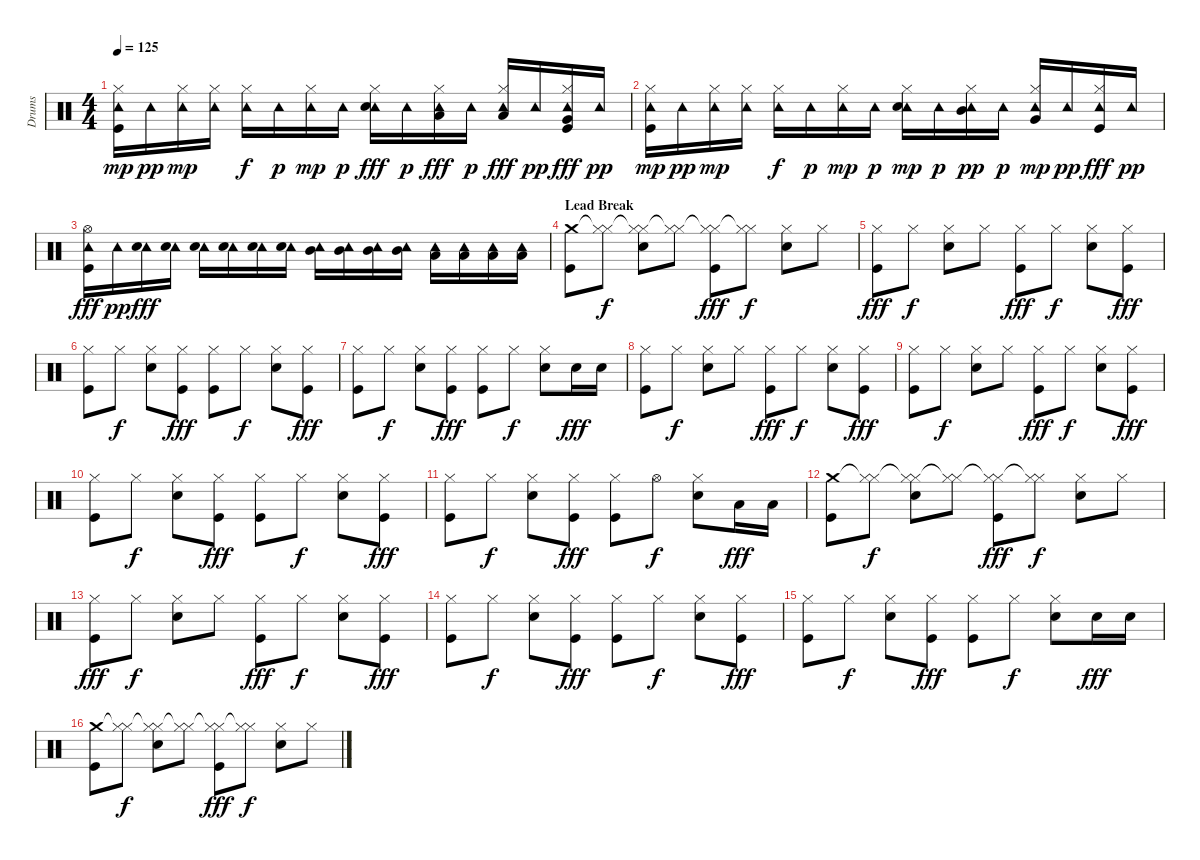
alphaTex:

\track ("Drums" "Drums") {instrument percussion}
\staff {score}
\articulation defaults
\ts (4 4)
\tempo 125
\clef neutral
\ks c
("Tambourine (hit)" "Hi-Hat (closed)" "Kick (hit)").16{dy mp} "Tambourine (hit)".16{dy pp} ("Tambourine (hit)" "Hi-Hat (closed)").16{dy mp} ("Tambourine (hit)" "Hi-Hat (closed)").16 ("Tambourine (hit)" "Hi-Hat (closed)").16{dy f} "Tambourine (hit)".16{dy p} ("Tambourine (hit)" "Hi-Hat (closed)").16{dy mp} "Tambourine (hit)".16{dy p} ("Tambourine (hit)" "Hi-Hat (closed)" "Snare (hit) 2").16{dy fff} "Tambourine (hit)".16{dy p} ("Tambourine (hit)" "Hi-Hat (closed)" "Low Tom (hit)").16{dy fff} "Tambourine (hit)".16{dy p} ("Tambourine (hit)" "Hi-Hat (closed)" "Low Tom (hit)").16{dy fff} "Tambourine (hit)".16{dy pp} ("Tambourine (hit)" "Hi-Hat (closed)" "Very Low Tom (hit)" "Kick (hit)").16{dy fff} "Tambourine (hit)".16{dy pp} |
("Tambourine (hit)" "Hi-Hat (closed)" "Kick (hit)").16{dy mp} "Tambourine (hit)".16{dy pp} ("Tambourine (hit)" "Hi-Hat (closed)").16{dy mp} ("Tambourine (hit)" "Hi-Hat (closed)").16 ("Tambourine (hit)" "Hi-Hat (closed)").16{dy f} "Tambourine (hit)".16{dy p} ("Tambourine (hit)" "Hi-Hat (closed)").16{dy mp} "Tambourine (hit)".16{dy p} ("Tambourine (hit)" "Hi-Hat (closed)" "Snare (hit) 2").16{dy mp} "Tambourine (hit)".16{dy p} ("Tambourine (hit)" "Hi-Hat (closed)" "Mid Tom (hit)").16{dy pp} "Tambourine (hit)".16{dy p} ("Tambourine (hit)" "Hi-Hat (closed)" "Very Low Tom (hit)").16{dy mp} "Tambourine (hit)".16{dy pp} ("Tambourine (hit)" "Hi-Hat (closed)" "Kick (hit)").16{dy fff} "Tambourine (hit)".16{dy pp} |
("Tambourine (hit)" "Hi-Hat (open)" "Kick (hit)").16{dy fff} "Tambourine (hit)".16{dy pp} ("Tambourine (hit)" "Electric Snare (hit)").16{dy fff} ("Tambourine (hit)" "Electric Snare (hit)").16 ("Tambourine (hit)" "Electric Snare (hit)").16 ("Tambourine (hit)" "Electric Snare (hit)").16 ("Tambourine (hit)" "Electric Snare (hit)").16 ("Tambourine (hit)" "Electric Snare (hit)").16 ("Tambourine (hit)" "Mid Tom (hit)").16 ("Tambourine (hit)" "Mid Tom (hit)").16 ("Tambourine (hit)" "Mid Tom (hit)").16 ("Tambourine (hit)" "Mid Tom (hit)").16 ("Tambourine (hit)" "Low Tom (hit)").16 ("Tambourine (hit)" "Low Tom (hit)").16 ("Tambourine (hit)" "Low Tom (hit)").16 ("Tambourine (hit)" "Low Tom (hit)").16 |
\section ("" "Lead Break")
("Crash medium (hit)" "Kick (hit)").8 ("Hi-Hat (closed)"{t} "Hi-Hat (closed)").8{dy f} ("Hi-Hat (closed)"{t} "Hi-Hat (closed)" "Snare (hit) 2").8 ("Hi-Hat (closed)"{t} "Hi-Hat (closed)").8 ("Hi-Hat (closed)"{t} "Hi-Hat (closed)" "Kick (hit)").8{dy fff} ("Hi-Hat (closed)"{t} "Hi-Hat (closed)").8{dy f} ("Hi-Hat (closed)" "Snare (hit) 2").8 "Hi-Hat (closed)".8 |
("Hi-Hat (closed)" "Kick (hit)").8{dy fff} "Hi-Hat (closed)".8{dy f} ("Hi-Hat (closed)" "Snare (hit) 2").8 "Hi-Hat (closed)".8 ("Hi-Hat (closed)" "Kick (hit)").8{dy fff} "Hi-Hat (closed)".8{dy f} ("Hi-Hat (closed)" "Snare (hit) 2").8 ("Hi-Hat (closed)" "Kick (hit)").8{dy fff} |
("Hi-Hat (closed)" "Kick (hit)").8 "Hi-Hat (closed)".8{dy f} ("Hi-Hat (closed)" "Snare (hit) 2").8 ("Hi-Hat (closed)" "Kick (hit)").8{dy fff} ("Hi-Hat (closed)" "Kick (hit)").8 "Hi-Hat (closed)".8{dy f} ("Hi-Hat (closed)" "Snare (hit) 2").8 ("Hi-Hat (closed)" "Kick (hit)").8{dy fff} |
("Hi-Hat (closed)" "Kick (hit)").8 "Hi-Hat (closed)".8{dy f} ("Hi-Hat (closed)" "Snare (hit) 2").8 ("Hi-Hat (closed)" "Kick (hit)").8{dy fff} ("Hi-Hat (closed)" "Kick (hit)").8 "Hi-Hat (closed)".8{dy f} ("Hi-Hat (closed)" "Snare (hit) 2").8 "Snare (hit) 2".16{dy fff} "Snare (hit) 2".16 |
("Hi-Hat (closed)" "Kick (hit)").8 "Hi-Hat (closed)".8{dy f} ("Hi-Hat (closed)" "Snare (hit) 2").8 "Hi-Hat (closed)".8 ("Hi-Hat (closed)" "Kick (hit)").8{dy fff} "Hi-Hat (closed)".8{dy f} ("Hi-Hat (closed)" "Snare (hit) 2").8 ("Hi-Hat (closed)" "Kick (hit)").8{dy fff} |
("Hi-Hat (closed)" "Kick (hit)").8 "Hi-Hat (closed)".8{dy f} ("Hi-Hat (closed)" "Snare (hit) 2").8 "Hi-Hat (closed)".8 ("Hi-Hat (closed)" "Kick (hit)").8{dy fff} "Hi-Hat (closed)".8{dy f} ("Hi-Hat (closed)" "Snare (hit) 2").8 ("Hi-Hat (closed)" "Kick (hit)").8{dy fff} |
("Hi-Hat (closed)" "Kick (hit)").8 "Hi-Hat (closed)".8{dy f} ("Hi-Hat (closed)" "Snare (hit) 2").8 ("Hi-Hat (closed)" "Kick (hit)").8{dy fff} ("Hi-Hat (closed)" "Kick (hit)").8 "Hi-Hat (closed)".8{dy f} ("Hi-Hat (closed)" "Snare (hit) 2").8 ("Hi-Hat (closed)" "Kick (hit)").8{dy fff} |
("Hi-Hat (closed)" "Kick (hit)").8 "Hi-Hat (closed)".8{dy f} ("Hi-Hat (closed)" "Snare (hit) 2").8 ("Hi-Hat (closed)" "Kick (hit)").8{dy fff} ("Hi-Hat (closed)" "Kick (hit)").8 "Hi-Hat (open)".8{dy f} ("Hi-Hat (closed)" "Snare (hit) 2").8 "Low Tom (hit)".16{dy fff} "Low Tom (hit)".16 |
("Crash medium (hit)" "Kick (hit)").8 ("Hi-Hat (closed)"{t} "Hi-Hat (closed)").8{dy f} ("Hi-Hat (closed)"{t} "Hi-Hat (closed)" "Snare (hit) 2").8 ("Hi-Hat (closed)"{t} "Hi-Hat (closed)").8 ("Hi-Hat (closed)"{t} "Hi-Hat (closed)" "Kick (hit)").8{dy fff} ("Hi-Hat (closed)"{t} "Hi-Hat (closed)").8{dy f} ("Hi-Hat (closed)" "Snare (hit) 2").8 "Hi-Hat (closed)".8 |
("Hi-Hat (closed)" "Kick (hit)").8{dy fff} "Hi-Hat (closed)".8{dy f} ("Hi-Hat (closed)" "Snare (hit) 2").8 "Hi-Hat (closed)".8 ("Hi-Hat (closed)" "Kick (hit)").8{dy fff} "Hi-Hat (closed)".8{dy f} ("Hi-Hat (closed)" "Snare (hit) 2").8 ("Hi-Hat (closed)" "Kick (hit)").8{dy fff} |
("Hi-Hat (closed)" "Kick (hit)").8 "Hi-Hat (closed)".8{dy f} ("Hi-Hat (closed)" "Snare (hit) 2").8 ("Hi-Hat (closed)" "Kick (hit)").8{dy fff} ("Hi-Hat (closed)" "Kick (hit)").8 "Hi-Hat (closed)".8{dy f} ("Hi-Hat (closed)" "Snare (hit) 2").8 ("Hi-Hat (closed)" "Kick (hit)").8{dy fff} |
("Hi-Hat (closed)" "Kick (hit)").8 "Hi-Hat (closed)".8{dy f} ("Hi-Hat (closed)" "Snare (hit) 2").8 ("Hi-Hat (closed)" "Kick (hit)").8{dy fff} ("Hi-Hat (closed)" "Kick (hit)").8 "Hi-Hat (closed)".8{dy f} ("Hi-Hat (closed)" "Snare (hit) 2").8 "Snare (hit) 2".16{dy fff} "Snare (hit) 2".16 |
("Crash medium (hit)" "Kick (hit)").8 ("Hi-Hat (closed)"{t} "Hi-Hat (closed)").8{dy f} ("Hi-Hat (closed)"{t} "Hi-Hat (closed)" "Snare (hit) 2").8 ("Hi-Hat (closed)"{t} "Hi-Hat (closed)").8 ("Hi-Hat (closed)"{t} "Hi-Hat (closed)" "Kick (hit)").8{dy fff} ("Hi-Hat (closed)"{t} "Hi-Hat (closed)").8{dy f} ("Hi-Hat (closed)" "Snare (hit) 2").8 "Hi-Hat (closed)".8
